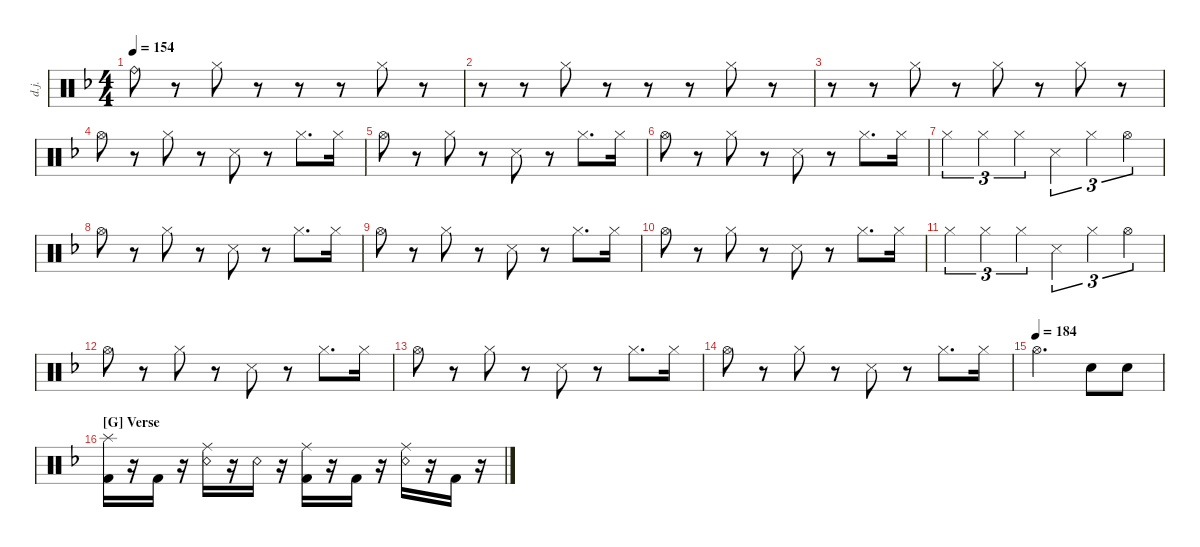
\defaultSystemsLayout 4
\hideDynamics
\bracketExtendMode nobrackets
\otherSystemsTrackNameOrientation horizontal
\track ("Drumkit Jason" "d.j.") {instrument percussion}
\staff {score}
\articulation defaults
\ts (4 4)
\tempo 154
\clef neutral
\ks dminor "Ride (bell)"{acc forcenatural}.8{dy ff beam Down}
r.8{beam Down} "Hi-Hat (closed)"{acc forcenatural}.8{beam Down} r.8{beam Down} r.8{beam Down} r.8{beam Down} "Hi-Hat (closed)"{acc forcenatural}.8{beam Down} r.8{beam Down} |
r.8{beam Down} r.8{beam Down} "Hi-Hat (closed)"{acc forcenatural}.8{beam Down} r.8{beam Down} r.8{beam Down} r.8{beam Down} "Hi-Hat (closed)"{acc forcenatural}.8{beam Down} r.8{beam Down} |
r.8{beam Down} r.8{beam Down} "Hi-Hat (closed)"{acc forcenatural}.8{beam Down} r.8{beam Down} "Hi-Hat (closed)"{acc forcenatural}.8{beam Down} r.8{beam Down} "Hi-Hat (closed)"{acc forcenatural}.8{beam Down} r.8{beam Down} |
"Hi-Hat (open)"{acc forcenatural}.8{beam Down} r.8{beam Down} "Hi-Hat (closed)"{acc forcenatural}.8{beam Down} r.8{beam Down} "Snare (side stick) 3"{acc forcenatural}.8{beam Down} r.8{beam Down} "Hi-Hat (closed)"{acc forcenatural}.8{d beam Down} "Hi-Hat (closed)"{acc forcenatural}.16{beam Down} |
"Hi-Hat (open)"{acc forcenatural}.8{beam Down} r.8{beam Down} "Hi-Hat (closed)"{acc forcenatural}.8{beam Down} r.8{beam Down} "Snare (side stick) 3"{acc forcenatural}.8{beam Down} r.8{beam Down} "Hi-Hat (closed)"{acc forcenatural}.8{d beam Down} "Hi-Hat (closed)"{acc forcenatural}.16{beam Down} |
"Hi-Hat (open)"{acc forcenatural}.8{beam Down} r.8{beam Down} "Hi-Hat (closed)"{acc forcenatural}.8{beam Down} r.8{beam Down} "Snare (side stick) 3"{acc forcenatural}.8{beam Down} r.8{beam Down} "Hi-Hat (closed)"{acc forcenatural}.8{d beam Down} "Hi-Hat (closed)"{acc forcenatural}.16{beam Down} |
"Hi-Hat (closed)"{acc forcenatural}.4{tu (3 2) beam Down} "Hi-Hat (closed)"{acc forcenatural}.4{tu (3 2) beam Down} "Hi-Hat (closed)"{acc forcenatural}.4{tu (3 2) beam Down} "Snare (side stick) 3"{acc forcenatural}.4{tu (3 2) beam Down} "Hi-Hat (closed)"{acc forcenatural}.4{tu (3 2) beam Down} "Hi-Hat (open)"{acc forcenatural}.4{tu (3 2) beam Down} |
"Hi-Hat (open)"{acc forcenatural}.8{beam Down} r.8{beam Down} "Hi-Hat (closed)"{acc forcenatural}.8{beam Down} r.8{beam Down} "Snare (side stick) 3"{acc forcenatural}.8{beam Down} r.8{beam Down} "Hi-Hat (closed)"{acc forcenatural}.8{d beam Down} "Hi-Hat (closed)"{acc forcenatural}.16{beam Down} |
"Hi-Hat (open)"{acc forcenatural}.8{beam Down} r.8{beam Down} "Hi-Hat (closed)"{acc forcenatural}.8{beam Down} r.8{beam Down} "Snare (side stick) 3"{acc forcenatural}.8{beam Down} r.8{beam Down} "Hi-Hat (closed)"{acc forcenatural}.8{d beam Down} "Hi-Hat (closed)"{acc forcenatural}.16{beam Down} |
"Hi-Hat (open)"{acc forcenatural}.8{beam Down} r.8{beam Down} "Hi-Hat (closed)"{acc forcenatural}.8{beam Down} r.8{beam Down} "Snare (side stick) 3"{acc forcenatural}.8{beam Down} r.8{beam Down} "Hi-Hat (closed)"{acc forcenatural}.8{d beam Down} "Hi-Hat (closed)"{acc forcenatural}.16{beam Down} |
"Hi-Hat (closed)"{acc forcenatural}.4{tu (3 2) beam Down} "Hi-Hat (closed)"{acc forcenatural}.4{tu (3 2) beam Down} "Hi-Hat (closed)"{acc forcenatural}.4{tu (3 2) beam Down} "Snare (side stick) 3"{acc forcenatural}.4{tu (3 2) beam Down} "Hi-Hat (closed)"{acc forcenatural}.4{tu (3 2) beam Down} "Hi-Hat (open)"{acc forcenatural}.4{tu (3 2) beam Down} |
"Hi-Hat (open)"{acc forcenatural}.8{beam Down} r.8{beam Down} "Hi-Hat (closed)"{acc forcenatural}.8{beam Down} r.8{beam Down} "Snare (side stick) 3"{acc forcenatural}.8{beam Down} r.8{beam Down} "Hi-Hat (closed)"{acc forcenatural}.8{d beam Down} "Hi-Hat (closed)"{acc forcenatural}.16{beam Down} |
"Hi-Hat (open)"{acc forcenatural}.8{beam Down} r.8{beam Down} "Hi-Hat (closed)"{acc forcenatural}.8{beam Down} r.8{beam Down} "Snare (side stick) 3"{acc forcenatural}.8{beam Down} r.8{beam Down} "Hi-Hat (closed)"{acc forcenatural}.8{d beam Down} "Hi-Hat (closed)"{acc forcenatural}.16{beam Down} |
"Hi-Hat (open)"{acc forcenatural}.8{beam Down} r.8{beam Down} "Hi-Hat (closed)"{acc forcenatural}.8{beam Down} r.8{beam Down} "Snare (side stick) 3"{acc forcenatural}.8{beam Down} r.8{beam Down} "Hi-Hat (closed)"{acc forcenatural}.8{d beam Down} "Hi-Hat (closed)"{acc forcenatural}.16{beam Down} |
\tempo (184)
"Hi-Hat (open)"{acc forcenatural}.2{d beam Down} "Snare (hit) 2"{acc forcenatural}.8{beam Down} "Snare (hit) 2"{acc forcenatural}.8{beam Down} |
\section ("G" "Verse")
("Kick (hit) 2"{acc forcenatural} "Splash (hit)"{acc forcenatural}).16{beam Down} r.16{beam Down} "Kick (hit) 2"{acc forcenatural}.16{beam Down} r.16{beam Down} ("Snare (rim shot)"{acc forcenatural} "Ride (middle)"{acc forcenatural}).16{beam Down} r.16{beam Down} "Snare (rim shot)"{acc forcenatural}.16{beam Down} r.16{beam Down} ("Kick (hit) 2"{acc forcenatural} "Ride (middle)"{acc forcenatural}).16{beam Down} r.16{beam Down} "Kick (hit) 2"{acc forcenatural}.16{beam Down} r.16{beam Down} ("Snare (rim shot)"{acc forcenatural} "Ride (middle)"{acc forcenatural}).16{beam Down} r.16{beam Down} "Kick (hit) 2"{acc forcenatural}.16{beam Down} r.16{beam Down}
